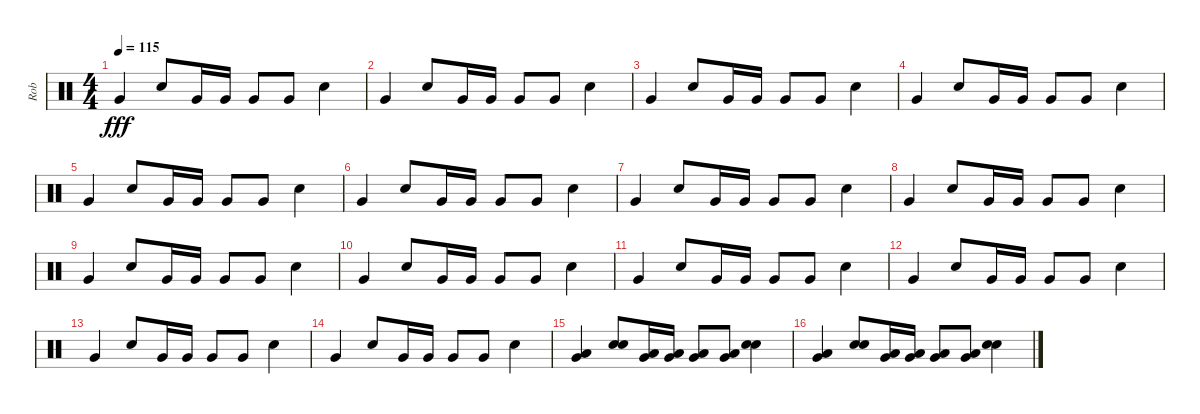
\track ("Rob" "Rob") {instrument percussion}
\staff {score}
\articulation defaults
\ts (4 4)
\tempo 115
\clef neutral
\ks c "Very Low Tom (hit)".4{dy fff} "Snare (hit) 2".8 "Very Low Tom (hit)".16 "Very Low Tom (hit)".16 "Very Low Tom (hit)".8 "Very Low Tom (hit)".8 "Snare (hit) 2".4
|
"Very Low Tom (hit)".4 "Snare (hit) 2".8 "Very Low Tom (hit)".16 "Very Low Tom (hit)".16 "Very Low Tom (hit)".8 "Very Low Tom (hit)".8 "Snare (hit) 2".4 |
"Very Low Tom (hit)".4 "Snare (hit) 2".8 "Very Low Tom (hit)".16 "Very Low Tom (hit)".16 "Very Low Tom (hit)".8 "Very Low Tom (hit)".8 "Snare (hit) 2".4 |
"Very Low Tom (hit)".4 "Snare (hit) 2".8 "Very Low Tom (hit)".16 "Very Low Tom (hit)".16 "Very Low Tom (hit)".8 "Very Low Tom (hit)".8 "Snare (hit) 2".4 |
"Very Low Tom (hit)".4 "Snare (hit) 2".8 "Very Low Tom (hit)".16 "Very Low Tom (hit)".16 "Very Low Tom (hit)".8 "Very Low Tom (hit)".8 "Snare (hit) 2".4 |
"Very Low Tom (hit)".4 "Snare (hit) 2".8 "Very Low Tom (hit)".16 "Very Low Tom (hit)".16 "Very Low Tom (hit)".8 "Very Low Tom (hit)".8 "Snare (hit) 2".4 |
"Very Low Tom (hit)".4 "Snare (hit) 2".8 "Very Low Tom (hit)".16 "Very Low Tom (hit)".16 "Very Low Tom (hit)".8 "Very Low Tom (hit)".8 "Snare (hit) 2".4 |
"Very Low Tom (hit)".4 "Snare (hit) 2".8 "Very Low Tom (hit)".16 "Very Low Tom (hit)".16 "Very Low Tom (hit)".8 "Very Low Tom (hit)".8 "Snare (hit) 2".4 |
"Very Low Tom (hit)".4 "Snare (hit) 2".8 "Very Low Tom (hit)".16 "Very Low Tom (hit)".16 "Very Low Tom (hit)".8 "Very Low Tom (hit)".8 "Snare (hit) 2".4 |
"Very Low Tom (hit)".4 "Snare (hit) 2".8 "Very Low Tom (hit)".16 "Very Low Tom (hit)".16 "Very Low Tom (hit)".8 "Very Low Tom (hit)".8 "Snare (hit) 2".4 |
"Very Low Tom (hit)".4 "Snare (hit) 2".8 "Very Low Tom (hit)".16 "Very Low Tom (hit)".16 "Very Low Tom (hit)".8 "Very Low Tom (hit)".8 "Snare (hit) 2".4 |
"Very Low Tom (hit)".4 "Snare (hit) 2".8 "Very Low Tom (hit)".16 "Very Low Tom (hit)".16 "Very Low Tom (hit)".8 "Very Low Tom (hit)".8 "Snare (hit) 2".4 |
"Very Low Tom (hit)".4 "Snare (hit) 2".8 "Very Low Tom (hit)".16 "Very Low Tom (hit)".16 "Very Low Tom (hit)".8 "Very Low Tom (hit)".8 "Snare (hit) 2".4 |
"Very Low Tom (hit)".4 "Snare (hit) 2".8 "Very Low Tom (hit)".16 "Very Low Tom (hit)".16 "Very Low Tom (hit)".8 "Very Low Tom (hit)".8 "Snare (hit) 2".4 |
("Very Low Tom (hit)" "Low Floor Tom (hit)").4 ("Snare (hit) 2" "Electric Snare (hit)").8 ("Very Low Tom (hit)" "Low Floor Tom (hit)").16 ("Very Low Tom (hit)" "Low Floor Tom (hit)").16 ("Very Low Tom (hit)" "Low Floor Tom (hit)").8 ("Very Low Tom (hit)" "Low Floor Tom (hit)").8 ("Snare (hit) 2" "Electric Snare (hit)").4 |
("Very Low Tom (hit)" "Low Floor Tom (hit)").4 ("Snare (hit) 2" "Electric Snare (hit)").8 ("Very Low Tom (hit)" "Low Floor Tom (hit)").16 ("Very Low Tom (hit)" "Low Floor Tom (hit)").16 ("Very Low Tom (hit)" "Low Floor Tom (hit)").8 ("Very Low Tom (hit)" "Low Floor Tom (hit)").8 ("Snare (hit) 2" "Electric Snare (hit)").4
